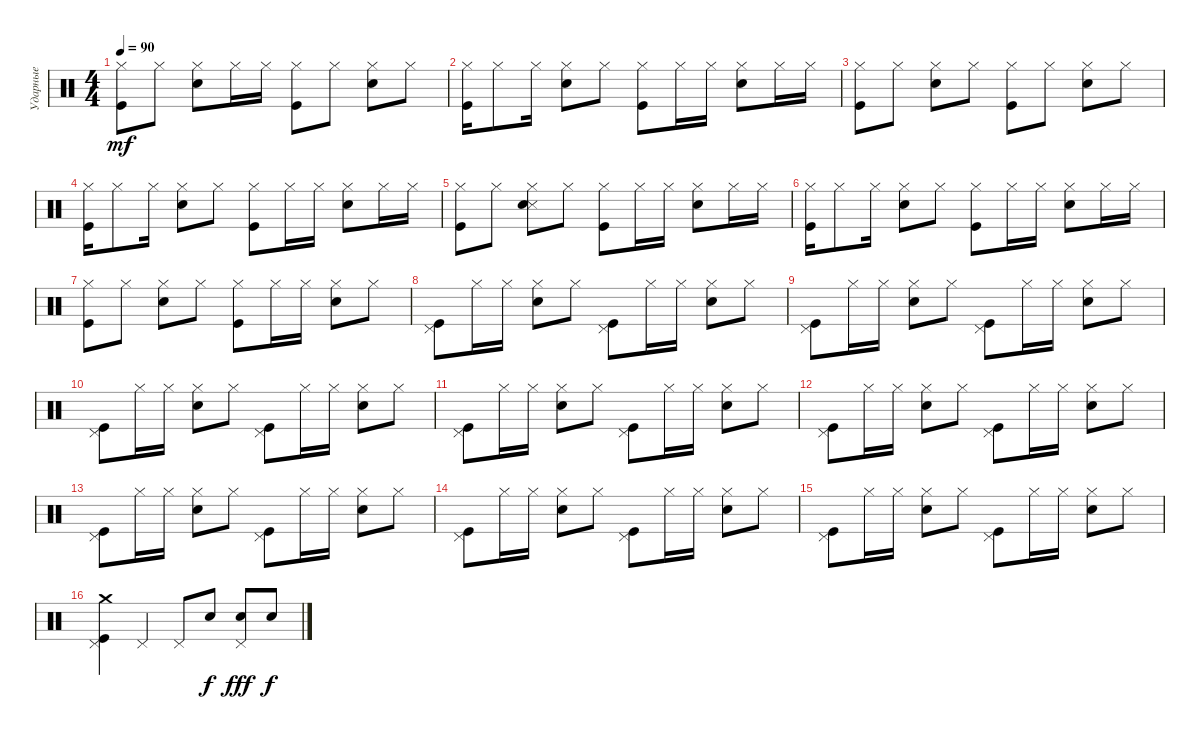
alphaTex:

\track ("Ударные" "Ударные") {instrument percussion}
\staff {score}
\articulation defaults
\ts (4 4)
\tempo 90
\clef neutral
\ks c
("Hi-Hat (closed)" "Kick (hit)").8{dy mf} "Hi-Hat (closed)".8 ("Hi-Hat (closed)" "Snare (hit) 2").8 "Hi-Hat (closed)".16 "Hi-Hat (closed)".16 ("Hi-Hat (closed)" "Kick (hit)").8 "Hi-Hat (closed)".8 ("Hi-Hat (closed)" "Snare (hit) 2").8 "Hi-Hat (closed)".8 |
("Hi-Hat (closed)" "Kick (hit)").16 "Hi-Hat (closed)".8 "Hi-Hat (closed)".16 ("Hi-Hat (closed)" "Snare (hit) 2").8 "Hi-Hat (closed)".8 ("Hi-Hat (closed)" "Kick (hit)").8 "Hi-Hat (closed)".16 "Hi-Hat (closed)".16 ("Hi-Hat (closed)" "Snare (hit) 2").8 "Hi-Hat (closed)".16 "Hi-Hat (closed)".16 |
("Hi-Hat (closed)" "Kick (hit)").8 "Hi-Hat (closed)".8 ("Hi-Hat (closed)" "Snare (hit) 2").8 "Hi-Hat (closed)".8 ("Hi-Hat (closed)" "Kick (hit)").8 "Hi-Hat (closed)".8 ("Hi-Hat (closed)" "Snare (hit) 2").8 "Hi-Hat (closed)".8 |
("Hi-Hat (closed)" "Kick (hit)").16 "Hi-Hat (closed)".8 "Hi-Hat (closed)".16 ("Hi-Hat (closed)" "Snare (hit) 2").8 "Hi-Hat (closed)".8 ("Hi-Hat (closed)" "Kick (hit)").8 "Hi-Hat (closed)".16 "Hi-Hat (closed)".16 ("Hi-Hat (closed)" "Snare (hit) 2").8 "Hi-Hat (closed)".16 "Hi-Hat (closed)".16 |
("Hi-Hat (closed)" "Kick (hit)").8 "Hi-Hat (closed)".8 ("Hi-Hat (closed)" "Snare (side stick) 3" "Snare (hit) 2").8 "Hi-Hat (closed)".8 ("Hi-Hat (closed)" "Kick (hit)").8 "Hi-Hat (closed)".16 "Hi-Hat (closed)".16 ("Hi-Hat (closed)" "Snare (hit) 2").8 "Hi-Hat (closed)".16 "Hi-Hat (closed)".16 |
("Hi-Hat (closed)" "Kick (hit)").16 "Hi-Hat (closed)".8 "Hi-Hat (closed)".16 ("Hi-Hat (closed)" "Snare (hit) 2").8 "Hi-Hat (closed)".8 ("Hi-Hat (closed)" "Kick (hit)").8 "Hi-Hat (closed)".16 "Hi-Hat (closed)".16 ("Hi-Hat (closed)" "Snare (hit) 2").8 "Hi-Hat (closed)".16 "Hi-Hat (closed)".16 |
("Hi-Hat (closed)" "Kick (hit)").8 "Hi-Hat (closed)".8 ("Hi-Hat (closed)" "Snare (hit) 2").8 "Hi-Hat (closed)".8 ("Hi-Hat (closed)" "Kick (hit)").8 "Hi-Hat (closed)".16 "Hi-Hat (closed)".16 ("Hi-Hat (closed)" "Snare (hit) 2").8 "Hi-Hat (closed)".8 |
("Pedal Hi-Hat (hit)" "Kick (hit)").8 "Hi-Hat (closed)".16 "Hi-Hat (closed)".16 ("Hi-Hat (closed)" "Snare (hit) 2").8 "Hi-Hat (closed)".8 ("Pedal Hi-Hat (hit)" "Kick (hit)").8 "Hi-Hat (closed)".16 "Hi-Hat (closed)".16 ("Hi-Hat (closed)" "Snare (hit) 2").8 "Hi-Hat (closed)".8 |
("Pedal Hi-Hat (hit)" "Kick (hit)").8 "Hi-Hat (closed)".16 "Hi-Hat (closed)".16 ("Hi-Hat (closed)" "Snare (hit) 2").8 "Hi-Hat (closed)".8 ("Pedal Hi-Hat (hit)" "Kick (hit)").8 "Hi-Hat (closed)".16 "Hi-Hat (closed)".16 ("Hi-Hat (closed)" "Snare (hit) 2").8 "Hi-Hat (closed)".8 |
("Pedal Hi-Hat (hit)" "Kick (hit)").8 "Hi-Hat (closed)".16 "Hi-Hat (closed)".16 ("Hi-Hat (closed)" "Snare (hit) 2").8 "Hi-Hat (closed)".8 ("Pedal Hi-Hat (hit)" "Kick (hit)").8 "Hi-Hat (closed)".16 "Hi-Hat (closed)".16 ("Hi-Hat (closed)" "Snare (hit) 2").8 "Hi-Hat (closed)".8 |
("Pedal Hi-Hat (hit)" "Kick (hit)").8 "Hi-Hat (closed)".16 "Hi-Hat (closed)".16 ("Hi-Hat (closed)" "Snare (hit) 2").8 "Hi-Hat (closed)".8 ("Pedal Hi-Hat (hit)" "Kick (hit)").8 "Hi-Hat (closed)".16 "Hi-Hat (closed)".16 ("Hi-Hat (closed)" "Snare (hit) 2").8 "Hi-Hat (closed)".8 |
("Pedal Hi-Hat (hit)" "Kick (hit)").8 "Hi-Hat (closed)".16 "Hi-Hat (closed)".16 ("Hi-Hat (closed)" "Snare (hit) 2").8 "Hi-Hat (closed)".8 ("Pedal Hi-Hat (hit)" "Kick (hit)").8 "Hi-Hat (closed)".16 "Hi-Hat (closed)".16 ("Hi-Hat (closed)" "Snare (hit) 2").8 "Hi-Hat (closed)".8 |
("Pedal Hi-Hat (hit)" "Kick (hit)").8 "Hi-Hat (closed)".16 "Hi-Hat (closed)".16 ("Hi-Hat (closed)" "Snare (hit) 2").8 "Hi-Hat (closed)".8 ("Pedal Hi-Hat (hit)" "Kick (hit)").8 "Hi-Hat (closed)".16 "Hi-Hat (closed)".16 ("Hi-Hat (closed)" "Snare (hit) 2").8 "Hi-Hat (closed)".8 |
("Pedal Hi-Hat (hit)" "Kick (hit)").8 "Hi-Hat (closed)".16 "Hi-Hat (closed)".16 ("Hi-Hat (closed)" "Snare (hit) 2").8 "Hi-Hat (closed)".8 ("Pedal Hi-Hat (hit)" "Kick (hit)").8 "Hi-Hat (closed)".16 "Hi-Hat (closed)".16 ("Hi-Hat (closed)" "Snare (hit) 2").8 "Hi-Hat (closed)".8 |
("Pedal Hi-Hat (hit)" "Kick (hit)").8 "Hi-Hat (closed)".16 "Hi-Hat (closed)".16 ("Hi-Hat (closed)" "Snare (hit) 2").8 "Hi-Hat (closed)".8 ("Pedal Hi-Hat (hit)" "Kick (hit)").8 "Hi-Hat (closed)".16 "Hi-Hat (closed)".16 ("Hi-Hat (closed)" "Snare (hit) 2").8 "Hi-Hat (closed)".8 |
("Pedal Hi-Hat (hit)" "Crash medium (hit)" "Kick (hit)").4 "Pedal Hi-Hat (hit)".4 "Pedal Hi-Hat (hit)".8 "Snare (hit) 2".8{dy f} ("Pedal Hi-Hat (hit)" "Snare (hit) 2").8{dy fff} "Snare (hit) 2".8{dy f}
